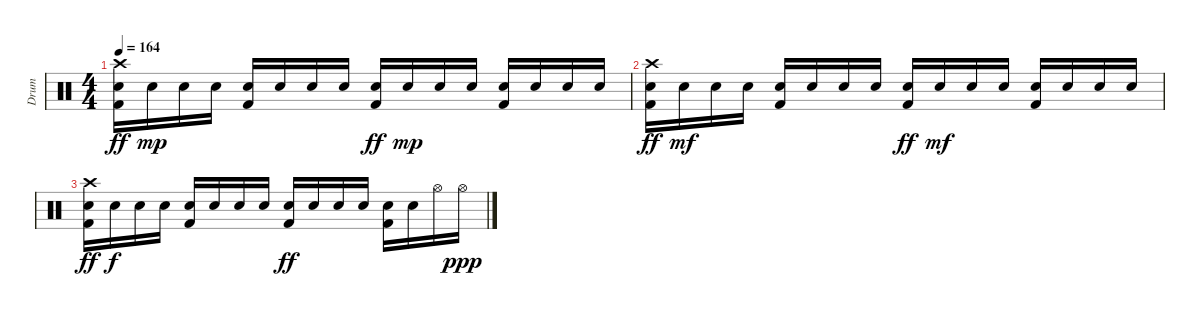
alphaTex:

\track ("Drum" "Drum") {instrument percussion}
\staff {score}
\articulation defaults
\ts (4 4)
\tempo 164
\clef neutral
\ks c
("Crash high (hit)" "Electric Snare (hit)" "Kick (hit) 2").16{dy ff} "Electric Snare (hit)".16{dy mp} "Electric Snare (hit)".16 "Electric Snare (hit)".16 ("Electric Snare (hit)" "Kick (hit) 2").16 "Electric Snare (hit)".16 "Electric Snare (hit)".16 "Electric Snare (hit)".16 ("Electric Snare (hit)" "Kick (hit) 2").16{dy ff} "Electric Snare (hit)".16{dy mp} "Electric Snare (hit)".16 "Electric Snare (hit)".16 ("Electric Snare (hit)" "Kick (hit) 2").16 "Electric Snare (hit)".16 "Electric Snare (hit)".16 "Electric Snare (hit)".16 |
("Crash high (hit)" "Electric Snare (hit)" "Kick (hit) 2").16{dy ff} "Electric Snare (hit)".16{dy mf} "Electric Snare (hit)".16 "Electric Snare (hit)".16 ("Electric Snare (hit)" "Kick (hit) 2").16 "Electric Snare (hit)".16 "Electric Snare (hit)".16 "Electric Snare (hit)".16 ("Electric Snare (hit)" "Kick (hit) 2").16{dy ff} "Electric Snare (hit)".16{dy mf} "Electric Snare (hit)".16 "Electric Snare (hit)".16 ("Electric Snare (hit)" "Kick (hit) 2").16 "Electric Snare (hit)".16 "Electric Snare (hit)".16 "Electric Snare (hit)".16 |
("Crash high (hit)" "Electric Snare (hit)" "Kick (hit) 2").16{dy ff} "Electric Snare (hit)".16{dy f} "Electric Snare (hit)".16 "Electric Snare (hit)".16 ("Electric Snare (hit)" "Kick (hit) 2").16 "Electric Snare (hit)".16 "Electric Snare (hit)".16 "Electric Snare (hit)".16 ("Electric Snare (hit)" "Kick (hit) 2").16{dy ff} "Electric Snare (hit)".16 "Electric Snare (hit)".16 "Electric Snare (hit)".16 ("Electric Snare (hit)" "Kick (hit) 2").16 "Electric Snare (hit)".16 "Hi-Hat (open)".16 "Hi-Hat (open)".16{dy ppp}
